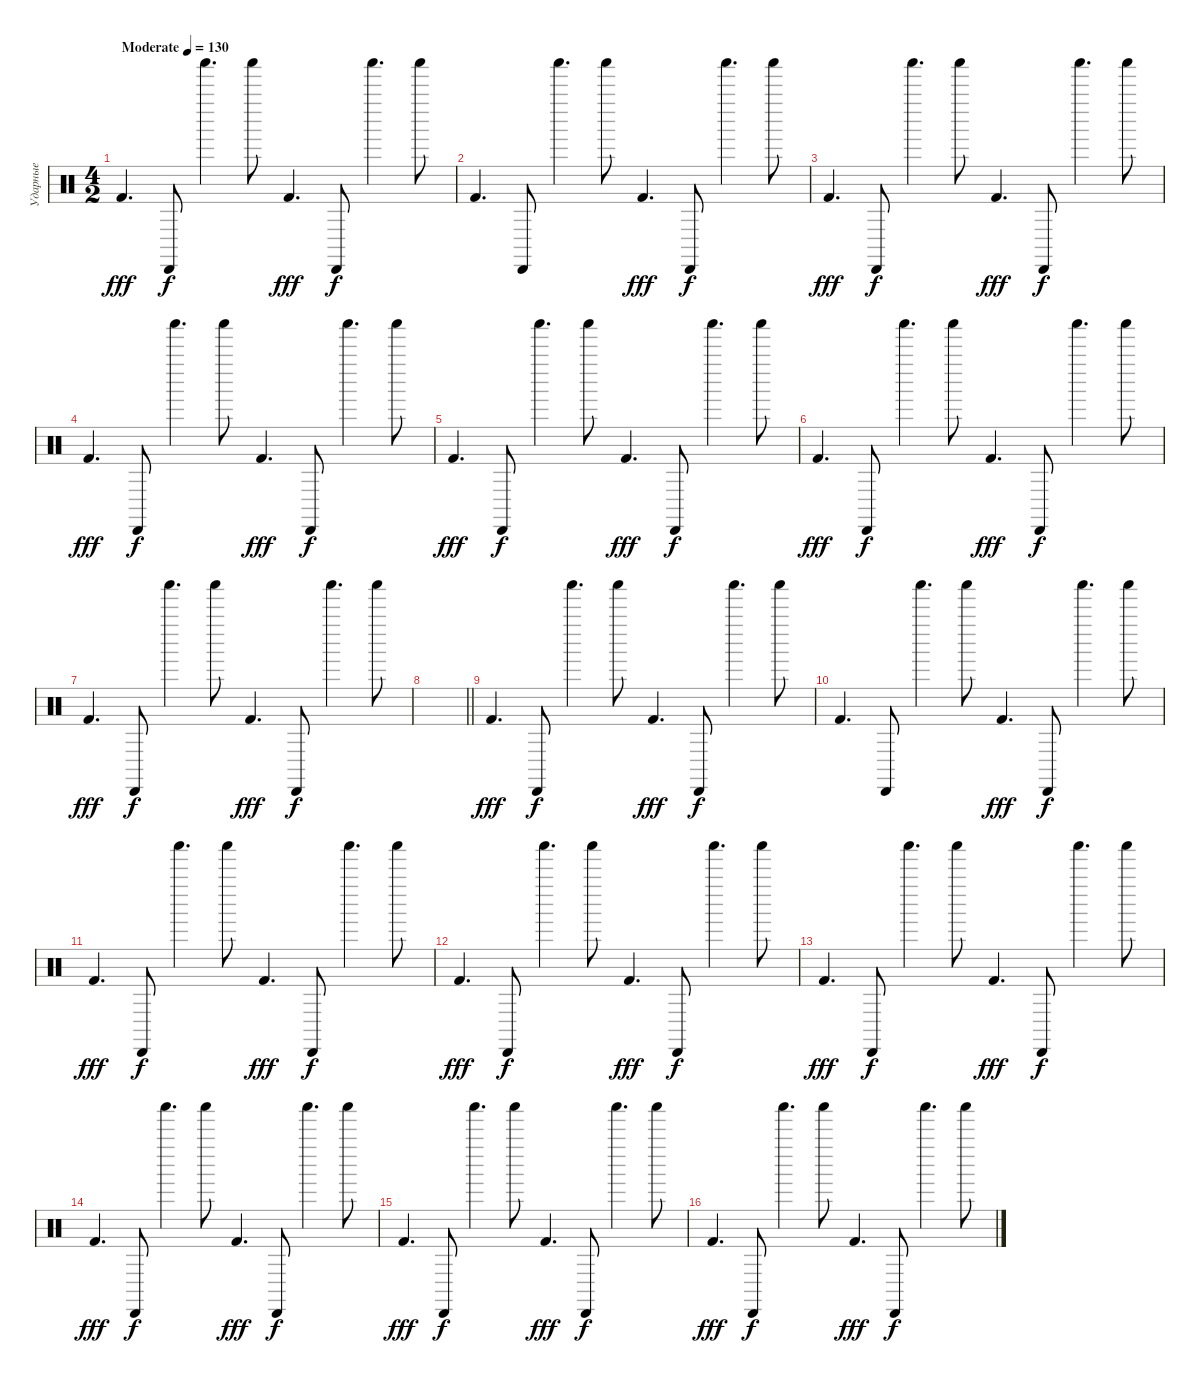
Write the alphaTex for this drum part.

\track ("Ударные" "Ударные") {instrument percussion}
\staff {score}
\articulation defaults
\ts (4 2)
\tempo (130 "Moderate")
\clef neutral
\ks c "Kick (hit) 2".4{d dy fff} "Cabasa (hit)".8{dy f} "Shaker (hit)".4{d} "Shaker (hit)".8 "Kick (hit) 2".4{d dy fff} "Cabasa (hit)".8{dy f} "Shaker (hit)".4{d} "Shaker (hit)".8
|
"Kick (hit) 2".4{d} "Cabasa (hit)".8 "Shaker (hit)".4{d} "Shaker (hit)".8 "Kick (hit) 2".4{d dy fff} "Cabasa (hit)".8{dy f} "Shaker (hit)".4{d} "Shaker (hit)".8 |
"Kick (hit) 2".4{d dy fff} "Cabasa (hit)".8{dy f} "Shaker (hit)".4{d} "Shaker (hit)".8 "Kick (hit) 2".4{d dy fff} "Cabasa (hit)".8{dy f} "Shaker (hit)".4{d} "Shaker (hit)".8 |
"Kick (hit) 2".4{d dy fff} "Cabasa (hit)".8{dy f} "Shaker (hit)".4{d} "Shaker (hit)".8 "Kick (hit) 2".4{d dy fff} "Cabasa (hit)".8{dy f} "Shaker (hit)".4{d} "Shaker (hit)".8 |
"Kick (hit) 2".4{d dy fff} "Cabasa (hit)".8{dy f} "Shaker (hit)".4{d} "Shaker (hit)".8 "Kick (hit) 2".4{d dy fff} "Cabasa (hit)".8{dy f} "Shaker (hit)".4{d} "Shaker (hit)".8 |
"Kick (hit) 2".4{d dy fff} "Cabasa (hit)".8{dy f} "Shaker (hit)".4{d} "Shaker (hit)".8 "Kick (hit) 2".4{d dy fff} "Cabasa (hit)".8{dy f} "Shaker (hit)".4{d} "Shaker (hit)".8 |
"Kick (hit) 2".4{d dy fff} "Cabasa (hit)".8{dy f} "Shaker (hit)".4{d} "Shaker (hit)".8 "Kick (hit) 2".4{d dy fff} "Cabasa (hit)".8{dy f} "Shaker (hit)".4{d} "Shaker (hit)".8 |
\barLineRight lightlight
|
"Kick (hit) 2".4{d dy fff} "Cabasa (hit)".8{dy f} "Shaker (hit)".4{d} "Shaker (hit)".8 "Kick (hit) 2".4{d dy fff} "Cabasa (hit)".8{dy f} "Shaker (hit)".4{d} "Shaker (hit)".8 |
"Kick (hit) 2".4{d} "Cabasa (hit)".8 "Shaker (hit)".4{d} "Shaker (hit)".8 "Kick (hit) 2".4{d dy fff} "Cabasa (hit)".8{dy f} "Shaker (hit)".4{d} "Shaker (hit)".8 |
"Kick (hit) 2".4{d dy fff} "Cabasa (hit)".8{dy f} "Shaker (hit)".4{d} "Shaker (hit)".8 "Kick (hit) 2".4{d dy fff} "Cabasa (hit)".8{dy f} "Shaker (hit)".4{d} "Shaker (hit)".8 |
"Kick (hit) 2".4{d dy fff} "Cabasa (hit)".8{dy f} "Shaker (hit)".4{d} "Shaker (hit)".8 "Kick (hit) 2".4{d dy fff} "Cabasa (hit)".8{dy f} "Shaker (hit)".4{d} "Shaker (hit)".8 |
"Kick (hit) 2".4{d dy fff} "Cabasa (hit)".8{dy f} "Shaker (hit)".4{d} "Shaker (hit)".8 "Kick (hit) 2".4{d dy fff} "Cabasa (hit)".8{dy f} "Shaker (hit)".4{d} "Shaker (hit)".8 |
"Kick (hit) 2".4{d dy fff} "Cabasa (hit)".8{dy f} "Shaker (hit)".4{d} "Shaker (hit)".8 "Kick (hit) 2".4{d dy fff} "Cabasa (hit)".8{dy f} "Shaker (hit)".4{d} "Shaker (hit)".8 |
"Kick (hit) 2".4{d dy fff} "Cabasa (hit)".8{dy f} "Shaker (hit)".4{d} "Shaker (hit)".8 "Kick (hit) 2".4{d dy fff} "Cabasa (hit)".8{dy f} "Shaker (hit)".4{d} "Shaker (hit)".8 |
"Kick (hit) 2".4{d dy fff} "Cabasa (hit)".8{dy f} "Shaker (hit)".4{d} "Shaker (hit)".8 "Kick (hit) 2".4{d dy fff} "Cabasa (hit)".8{dy f} "Shaker (hit)".4{d} "Shaker (hit)".8
